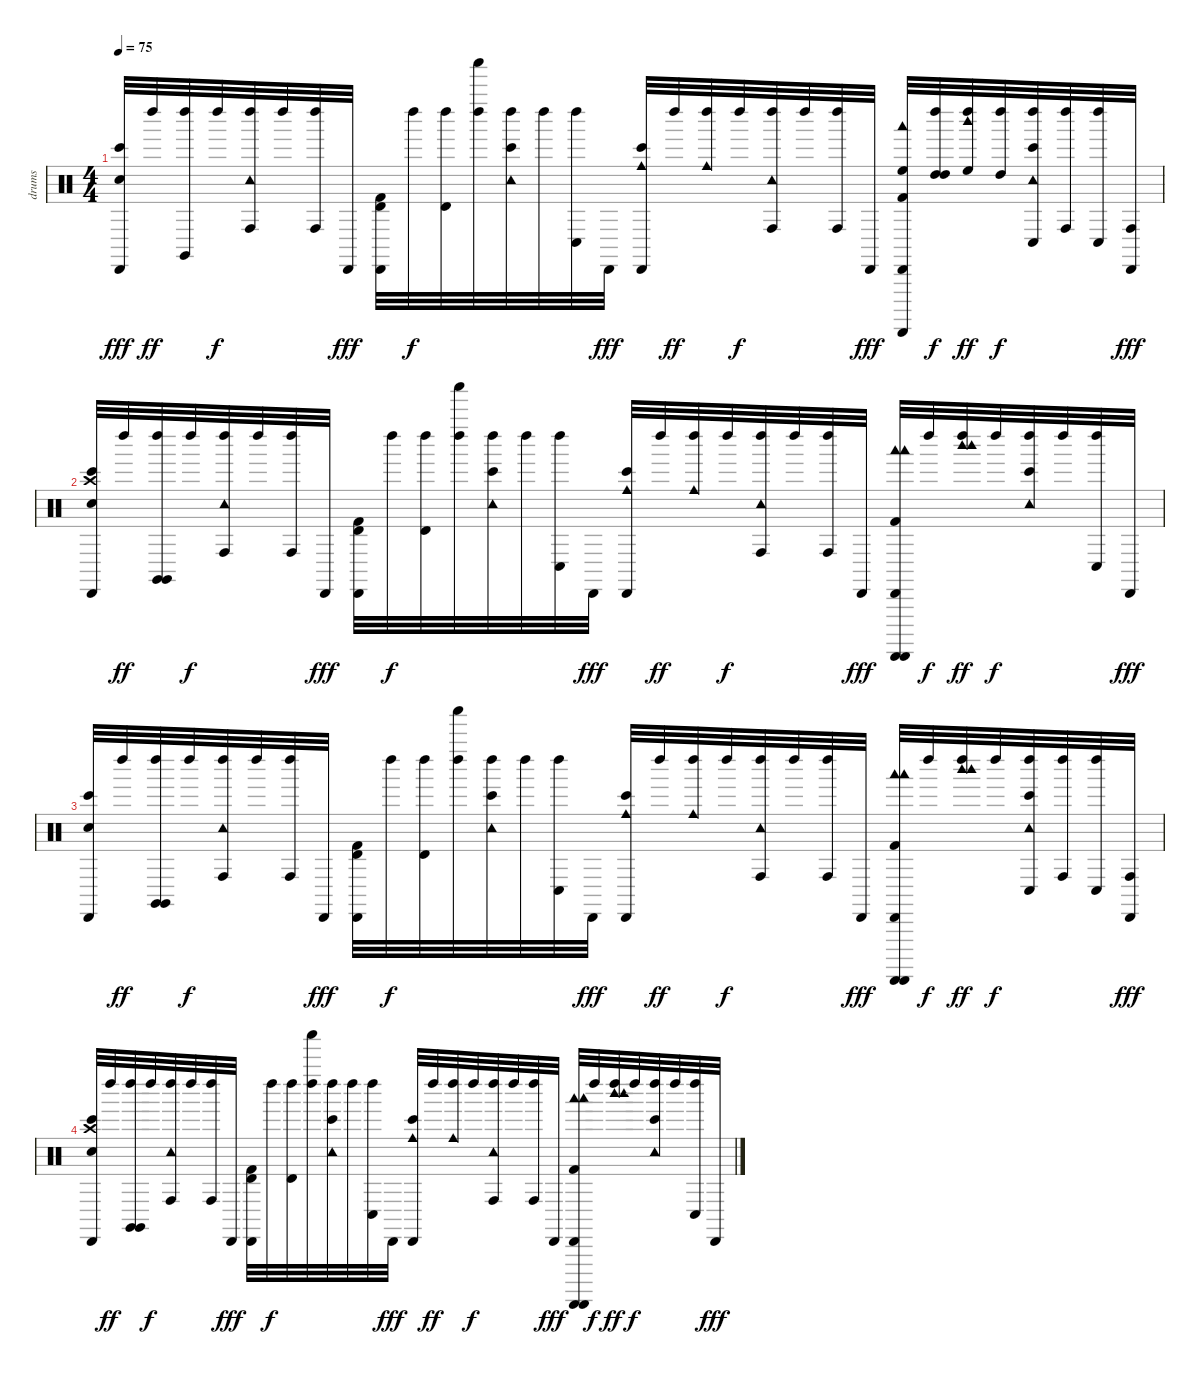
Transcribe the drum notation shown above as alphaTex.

\track ("drums" "drums") {instrument percussion}
\staff {score}
\articulation defaults
\ts (4 4)
\tempo 75
\clef neutral
\ks c
("Snare (hit) 2" "Bongo High (hit)" "Cabasa (hit)").32{dy fff} "Left Maraca (hit)".32{dy ff} ("Claves (hit)" "Left Maraca (hit)").32 "Left Maraca (hit)".32{dy f} ("Conga high (hit)" "Tambourine (hit)" "Left Maraca (hit)").32 "Left Maraca (hit)".32 ("Conga high (hit)" "Left Maraca (hit)").32 "Cabasa (hit)".32{dy fff} ("Timbale high (hit)" "Kick (hit) 2" "Cabasa (hit)").32 "Left Maraca (hit)".32{dy f} ("Timbale high (hit)" "Left Maraca (hit)").32 ("Left Maraca (hit)" "Shaker (hit)").32 ("Bongo High (hit)" "Tambourine (hit)" "Left Maraca (hit)").32 "Left Maraca (hit)".32 ("Conga low (hit)" "Left Maraca (hit)").32 "Cabasa (hit)".32{dy fff} ("Bongo High (hit)" "Cowbell medium (hit)" "Cabasa (hit)").32 "Left Maraca (hit)".32{dy ff} ("Cowbell medium (hit)" "Left Maraca (hit)").32 "Left Maraca (hit)".32{dy f} ("Conga high (hit)" "Tambourine (hit)" "Left Maraca (hit)").32 "Left Maraca (hit)".32 ("Conga high (hit)" "Left Maraca (hit)").32 "Cabasa (hit)".32{dy fff} ("Woodblock low (hit)" "Guiro (scrap-return)" "Kick (hit) 2" "High Floor Tom (hit)" "Cabasa (hit)").32 ("High Tom (hit)" "High Tom (hit)" "Left Maraca (hit)").32{dy f} ("High Floor Tom (hit)" "Woodblock high (hit)" "Left Maraca (hit)").32{dy ff} ("High Tom (hit)" "Left Maraca (hit)").32{dy f} ("Conga low (hit)" "Bongo High (hit)" "Tambourine (hit)" "Left Maraca (hit)").32 ("Conga high (hit)" "Left Maraca (hit)").32 ("Conga low (hit)" "Left Maraca (hit)").32 ("Conga high (hit)" "Cabasa (hit)").32{dy fff} |
("Bongo High (hit)" "Crash high (hit)" "Snare (hit) 2" "Cabasa (hit)").32 "Left Maraca (hit)".32{dy ff} ("Claves (hit)" "Claves (hit)" "Left Maraca (hit)").32 "Left Maraca (hit)".32{dy f} ("Conga high (hit)" "Tambourine (hit)" "Left Maraca (hit)").32 "Left Maraca (hit)".32 ("Conga high (hit)" "Left Maraca (hit)").32 "Cabasa (hit)".32{dy fff} ("Timbale high (hit)" "Kick (hit) 2" "Cabasa (hit)").32 "Left Maraca (hit)".32{dy f} ("Timbale high (hit)" "Left Maraca (hit)").32 ("Left Maraca (hit)" "Shaker (hit)").32 ("Bongo High (hit)" "Tambourine (hit)" "Left Maraca (hit)").32 "Left Maraca (hit)".32 ("Conga low (hit)" "Left Maraca (hit)").32 "Cabasa (hit)".32{dy fff} ("Bongo High (hit)" "Cowbell medium (hit)" "Cabasa (hit)").32 "Left Maraca (hit)".32{dy ff} ("Cowbell medium (hit)" "Left Maraca (hit)").32 "Left Maraca (hit)".32{dy f} ("Conga high (hit)" "Tambourine (hit)" "Left Maraca (hit)").32 "Left Maraca (hit)".32 ("Conga high (hit)" "Left Maraca (hit)").32 "Cabasa (hit)".32{dy fff} ("Woodblock low (hit)" "Guiro (scrap-return)" "Guiro (scrap-return)" "Kick (hit) 2" "Woodblock low (hit)" "Cabasa (hit)").32 "Left Maraca (hit)".32{dy f} ("Woodblock high (hit)" "Woodblock high (hit)" "Left Maraca (hit)").32{dy ff} "Left Maraca (hit)".32{dy f} ("Bongo High (hit)" "Tambourine (hit)" "Left Maraca (hit)").32 "Left Maraca (hit)".32 ("Conga low (hit)" "Left Maraca (hit)").32 "Cabasa (hit)".32{dy fff} |
("Snare (hit) 2" "Bongo High (hit)" "Cabasa (hit)").32 "Left Maraca (hit)".32{dy ff} ("Claves (hit)" "Claves (hit)" "Left Maraca (hit)").32 "Left Maraca (hit)".32{dy f} ("Conga high (hit)" "Tambourine (hit)" "Left Maraca (hit)").32 "Left Maraca (hit)".32 ("Conga high (hit)" "Left Maraca (hit)").32 "Cabasa (hit)".32{dy fff} ("Timbale high (hit)" "Kick (hit) 2" "Cabasa (hit)").32 "Left Maraca (hit)".32{dy f} ("Timbale high (hit)" "Left Maraca (hit)").32 ("Left Maraca (hit)" "Shaker (hit)").32 ("Bongo High (hit)" "Tambourine (hit)" "Left Maraca (hit)").32 "Left Maraca (hit)".32 ("Conga low (hit)" "Left Maraca (hit)").32 "Cabasa (hit)".32{dy fff} ("Bongo High (hit)" "Cowbell medium (hit)" "Cabasa (hit)").32 "Left Maraca (hit)".32{dy ff} ("Cowbell medium (hit)" "Left Maraca (hit)").32 "Left Maraca (hit)".32{dy f} ("Conga high (hit)" "Tambourine (hit)" "Left Maraca (hit)").32 "Left Maraca (hit)".32 ("Conga high (hit)" "Left Maraca (hit)").32 "Cabasa (hit)".32{dy fff} ("Woodblock low (hit)" "Guiro (scrap-return)" "Kick (hit) 2" "Guiro (scrap-return)" "Woodblock low (hit)" "Cabasa (hit)").32 "Left Maraca (hit)".32{dy f} ("Woodblock high (hit)" "Woodblock high (hit)" "Left Maraca (hit)").32{dy ff} "Left Maraca (hit)".32{dy f} ("Bongo High (hit)" "Conga low (hit)" "Tambourine (hit)" "Left Maraca (hit)").32 ("Conga high (hit)" "Left Maraca (hit)").32 ("Conga low (hit)" "Left Maraca (hit)").32 ("Conga high (hit)" "Cabasa (hit)").32{dy fff} |
("Crash high (hit)" "Snare (hit) 2" "Bongo High (hit)" "Cabasa (hit)").32 "Left Maraca (hit)".32{dy ff} ("Claves (hit)" "Claves (hit)" "Left Maraca (hit)").32 "Left Maraca (hit)".32{dy f} ("Conga high (hit)" "Tambourine (hit)" "Left Maraca (hit)").32 "Left Maraca (hit)".32 ("Conga high (hit)" "Left Maraca (hit)").32 "Cabasa (hit)".32{dy fff} ("Timbale high (hit)" "Kick (hit) 2" "Cabasa (hit)").32 "Left Maraca (hit)".32{dy f} ("Timbale high (hit)" "Left Maraca (hit)").32 ("Left Maraca (hit)" "Shaker (hit)").32 ("Bongo High (hit)" "Tambourine (hit)" "Left Maraca (hit)").32 "Left Maraca (hit)".32 ("Conga low (hit)" "Left Maraca (hit)").32 "Cabasa (hit)".32{dy fff} ("Bongo High (hit)" "Cowbell medium (hit)" "Cabasa (hit)").32 "Left Maraca (hit)".32{dy ff} ("Cowbell medium (hit)" "Left Maraca (hit)").32 "Left Maraca (hit)".32{dy f} ("Conga high (hit)" "Tambourine (hit)" "Left Maraca (hit)").32 "Left Maraca (hit)".32 ("Conga high (hit)" "Left Maraca (hit)").32 "Cabasa (hit)".32{dy fff} ("Woodblock low (hit)" "Guiro (scrap-return)" "Kick (hit) 2" "Guiro (scrap-return)" "Woodblock low (hit)" "Cabasa (hit)").32 "Left Maraca (hit)".32{dy f} ("Woodblock high (hit)" "Woodblock high (hit)" "Left Maraca (hit)").32{dy ff} "Left Maraca (hit)".32{dy f} ("Bongo High (hit)" "Tambourine (hit)" "Left Maraca (hit)").32 "Left Maraca (hit)".32 ("Conga low (hit)" "Left Maraca (hit)").32 "Cabasa (hit)".32{dy fff}
